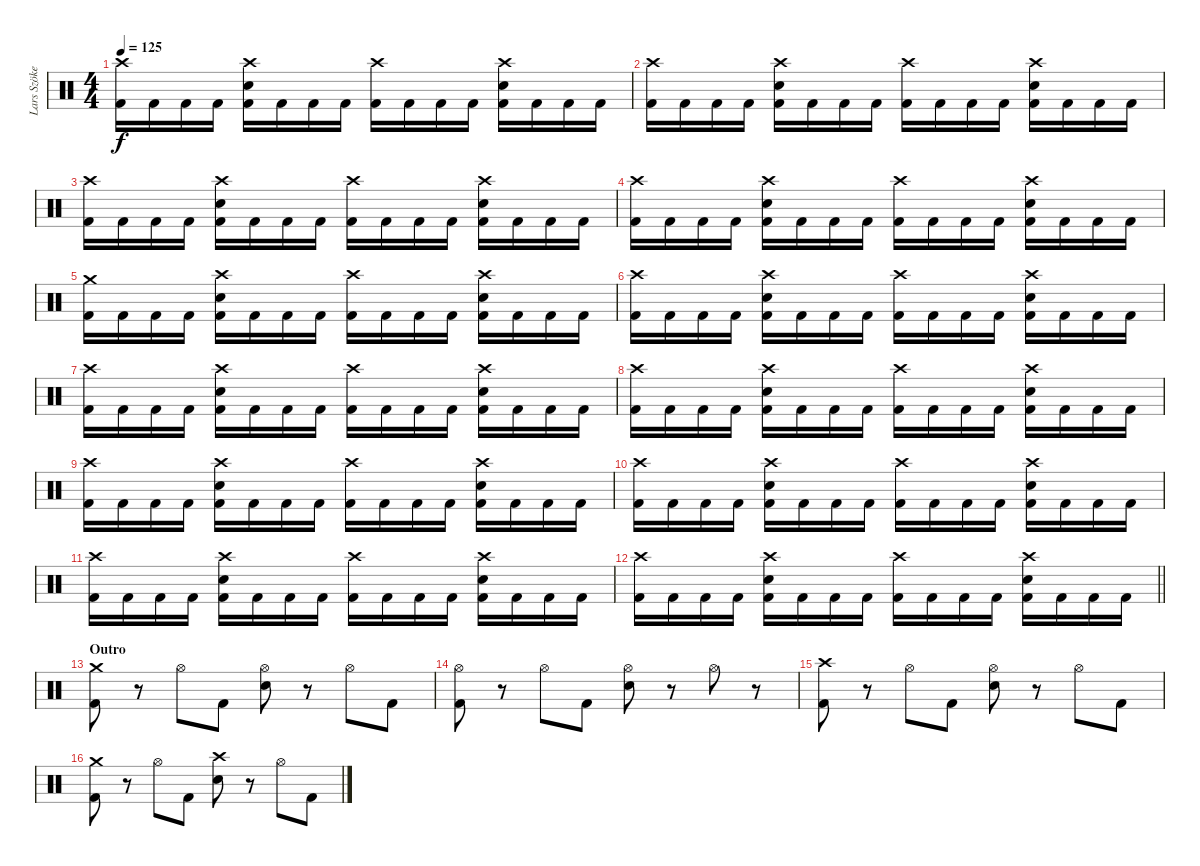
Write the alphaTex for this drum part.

\track ("Lars Szöke" "Lars Szöke") {instrument percussion}
\staff {score}
\articulation defaults
\ts (4 4)
\tempo 125
\clef neutral
\ks c
("Crash high (hit)" "Kick (hit) 2").16{dy f} "Kick (hit) 2".16 "Kick (hit) 2".16 "Kick (hit) 2".16 ("Crash high (hit)" "Snare (hit) 2" "Kick (hit) 2").16 "Kick (hit) 2".16 "Kick (hit) 2".16 "Kick (hit) 2".16 ("Crash high (hit)" "Kick (hit) 2").16 "Kick (hit) 2".16 "Kick (hit) 2".16 "Kick (hit) 2".16 ("Crash high (hit)" "Snare (hit) 2" "Kick (hit) 2").16 "Kick (hit) 2".16 "Kick (hit) 2".16 "Kick (hit) 2".16 |
("Crash high (hit)" "Kick (hit) 2").16 "Kick (hit) 2".16 "Kick (hit) 2".16 "Kick (hit) 2".16 ("Crash high (hit)" "Snare (hit) 2" "Kick (hit) 2").16 "Kick (hit) 2".16 "Kick (hit) 2".16 "Kick (hit) 2".16 ("Crash high (hit)" "Kick (hit) 2").16 "Kick (hit) 2".16 "Kick (hit) 2".16 "Kick (hit) 2".16 ("Crash high (hit)" "Snare (hit) 2" "Kick (hit) 2").16 "Kick (hit) 2".16 "Kick (hit) 2".16 "Kick (hit) 2".16 |
("Crash high (hit)" "Kick (hit) 2").16 "Kick (hit) 2".16 "Kick (hit) 2".16 "Kick (hit) 2".16 ("Crash high (hit)" "Snare (hit) 2" "Kick (hit) 2").16 "Kick (hit) 2".16 "Kick (hit) 2".16 "Kick (hit) 2".16 ("Crash high (hit)" "Kick (hit) 2").16 "Kick (hit) 2".16 "Kick (hit) 2".16 "Kick (hit) 2".16 ("Crash high (hit)" "Snare (hit) 2" "Kick (hit) 2").16 "Kick (hit) 2".16 "Kick (hit) 2".16 "Kick (hit) 2".16 |
("Crash high (hit)" "Kick (hit) 2").16 "Kick (hit) 2".16 "Kick (hit) 2".16 "Kick (hit) 2".16 ("Crash high (hit)" "Snare (hit) 2" "Kick (hit) 2").16 "Kick (hit) 2".16 "Kick (hit) 2".16 "Kick (hit) 2".16 ("Crash high (hit)" "Kick (hit) 2").16 "Kick (hit) 2".16 "Kick (hit) 2".16 "Kick (hit) 2".16 ("Crash high (hit)" "Snare (hit) 2" "Kick (hit) 2").16 "Kick (hit) 2".16 "Kick (hit) 2".16 "Kick (hit) 2".16 |
("Crash medium (hit)" "Kick (hit) 2").16 "Kick (hit) 2".16 "Kick (hit) 2".16 "Kick (hit) 2".16 ("Crash high (hit)" "Snare (hit) 2" "Kick (hit) 2").16 "Kick (hit) 2".16 "Kick (hit) 2".16 "Kick (hit) 2".16 ("Crash high (hit)" "Kick (hit) 2").16 "Kick (hit) 2".16 "Kick (hit) 2".16 "Kick (hit) 2".16 ("Crash high (hit)" "Snare (hit) 2" "Kick (hit) 2").16 "Kick (hit) 2".16 "Kick (hit) 2".16 "Kick (hit) 2".16 |
("Crash high (hit)" "Kick (hit) 2").16 "Kick (hit) 2".16 "Kick (hit) 2".16 "Kick (hit) 2".16 ("Crash high (hit)" "Snare (hit) 2" "Kick (hit) 2").16 "Kick (hit) 2".16 "Kick (hit) 2".16 "Kick (hit) 2".16 ("Crash high (hit)" "Kick (hit) 2").16 "Kick (hit) 2".16 "Kick (hit) 2".16 "Kick (hit) 2".16 ("Crash high (hit)" "Snare (hit) 2" "Kick (hit) 2").16 "Kick (hit) 2".16 "Kick (hit) 2".16 "Kick (hit) 2".16 |
("Crash high (hit)" "Kick (hit) 2").16 "Kick (hit) 2".16 "Kick (hit) 2".16 "Kick (hit) 2".16 ("Crash high (hit)" "Snare (hit) 2" "Kick (hit) 2").16 "Kick (hit) 2".16 "Kick (hit) 2".16 "Kick (hit) 2".16 ("Crash high (hit)" "Kick (hit) 2").16 "Kick (hit) 2".16 "Kick (hit) 2".16 "Kick (hit) 2".16 ("Crash high (hit)" "Snare (hit) 2" "Kick (hit) 2").16 "Kick (hit) 2".16 "Kick (hit) 2".16 "Kick (hit) 2".16 |
("Crash high (hit)" "Kick (hit) 2").16 "Kick (hit) 2".16 "Kick (hit) 2".16 "Kick (hit) 2".16 ("Crash high (hit)" "Snare (hit) 2" "Kick (hit) 2").16 "Kick (hit) 2".16 "Kick (hit) 2".16 "Kick (hit) 2".16 ("Crash high (hit)" "Kick (hit) 2").16 "Kick (hit) 2".16 "Kick (hit) 2".16 "Kick (hit) 2".16 ("Crash high (hit)" "Snare (hit) 2" "Kick (hit) 2").16 "Kick (hit) 2".16 "Kick (hit) 2".16 "Kick (hit) 2".16 |
("Crash high (hit)" "Kick (hit) 2").16 "Kick (hit) 2".16 "Kick (hit) 2".16 "Kick (hit) 2".16 ("Crash high (hit)" "Snare (hit) 2" "Kick (hit) 2").16 "Kick (hit) 2".16 "Kick (hit) 2".16 "Kick (hit) 2".16 ("Crash high (hit)" "Kick (hit) 2").16 "Kick (hit) 2".16 "Kick (hit) 2".16 "Kick (hit) 2".16 ("Crash high (hit)" "Snare (hit) 2" "Kick (hit) 2").16 "Kick (hit) 2".16 "Kick (hit) 2".16 "Kick (hit) 2".16 |
("Crash high (hit)" "Kick (hit) 2").16 "Kick (hit) 2".16 "Kick (hit) 2".16 "Kick (hit) 2".16 ("Crash high (hit)" "Snare (hit) 2" "Kick (hit) 2").16 "Kick (hit) 2".16 "Kick (hit) 2".16 "Kick (hit) 2".16 ("Crash high (hit)" "Kick (hit) 2").16 "Kick (hit) 2".16 "Kick (hit) 2".16 "Kick (hit) 2".16 ("Crash high (hit)" "Snare (hit) 2" "Kick (hit) 2").16 "Kick (hit) 2".16 "Kick (hit) 2".16 "Kick (hit) 2".16 |
("Crash high (hit)" "Kick (hit) 2").16 "Kick (hit) 2".16 "Kick (hit) 2".16 "Kick (hit) 2".16 ("Crash high (hit)" "Snare (hit) 2" "Kick (hit) 2").16 "Kick (hit) 2".16 "Kick (hit) 2".16 "Kick (hit) 2".16 ("Crash high (hit)" "Kick (hit) 2").16 "Kick (hit) 2".16 "Kick (hit) 2".16 "Kick (hit) 2".16 ("Crash high (hit)" "Snare (hit) 2" "Kick (hit) 2").16 "Kick (hit) 2".16 "Kick (hit) 2".16 "Kick (hit) 2".16 |
\barLineRight lightlight
("Crash high (hit)" "Kick (hit) 2").16 "Kick (hit) 2".16 "Kick (hit) 2".16 "Kick (hit) 2".16 ("Crash high (hit)" "Snare (hit) 2" "Kick (hit) 2").16 "Kick (hit) 2".16 "Kick (hit) 2".16 "Kick (hit) 2".16 ("Crash high (hit)" "Kick (hit) 2").16 "Kick (hit) 2".16 "Kick (hit) 2".16 "Kick (hit) 2".16 ("Crash high (hit)" "Snare (hit) 2" "Kick (hit) 2").16 "Kick (hit) 2".16 "Kick (hit) 2".16 "Kick (hit) 2".16 |
\section ("" "Outro")
("Crash medium (hit)" "Kick (hit) 2").8 r.8 "Hi-Hat (open)".8 "Kick (hit) 2".8 ("Hi-Hat (open)" "Snare (hit) 2").8 r.8 "Hi-Hat (open)".8 "Kick (hit) 2".8 |
("Hi-Hat (open)" "Kick (hit) 2").8 r.8 "Hi-Hat (open)".8 "Kick (hit) 2".8 ("Hi-Hat (open)" "Snare (hit) 2").8 r.8 "Hi-Hat (open)".8 r.8 |
("Crash high (hit)" "Kick (hit) 2").8 r.8 "Hi-Hat (open)".8 "Kick (hit) 2".8 ("Hi-Hat (open)" "Snare (hit) 2").8 r.8 "Hi-Hat (open)".8 "Kick (hit) 2".8 |
("Crash medium (hit)" "Kick (hit) 2").8 r.8 "Hi-Hat (open)".8 "Kick (hit) 2".8 ("Crash high (hit)" "Snare (hit) 2").8 r.8 "Hi-Hat (open)".8 "Kick (hit) 2".8
